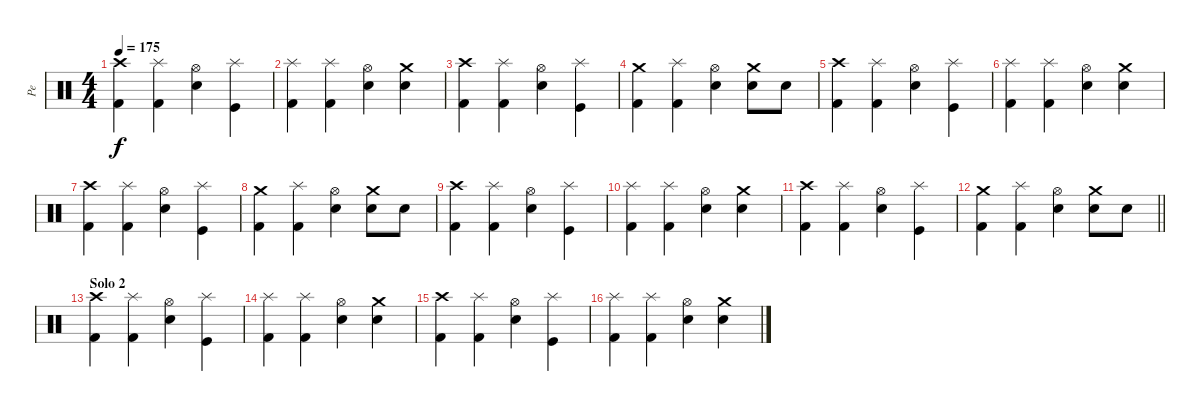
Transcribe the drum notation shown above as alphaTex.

\track ("Pe" "Pe") {instrument percussion}
\staff {score}
\articulation defaults
\ts (4 4)
\tempo 175
\clef neutral
\ks c
("Kick (hit) 2" "Crash high (hit)").4{dy f} ("Kick (hit) 2" "Splash (hit)").4 ("Electric Snare (hit)" "Hi-Hat (open)").4 ("Kick (hit)" "Splash (hit)").4 |
("Kick (hit) 2" "Splash (hit)").4 ("Kick (hit) 2" "Splash (hit)").4 ("Electric Snare (hit)" "Hi-Hat (open)").4 ("Electric Snare (hit)" "Crash medium (hit)").4 |
("Kick (hit) 2" "Crash high (hit)").4 ("Kick (hit) 2" "Splash (hit)").4 ("Electric Snare (hit)" "Hi-Hat (open)").4 ("Kick (hit)" "Splash (hit)").4 |
("Kick (hit) 2" "Crash medium (hit)").4 ("Kick (hit) 2" "Splash (hit)").4 ("Electric Snare (hit)" "Hi-Hat (open)").4 ("Electric Snare (hit)" "Crash medium (hit)").8 "Electric Snare (hit)".8 |
("Kick (hit) 2" "Crash high (hit)").4 ("Kick (hit) 2" "Splash (hit)").4 ("Electric Snare (hit)" "Hi-Hat (open)").4 ("Kick (hit)" "Splash (hit)").4 |
("Kick (hit) 2" "Splash (hit)").4 ("Kick (hit) 2" "Splash (hit)").4 ("Electric Snare (hit)" "Hi-Hat (open)").4 ("Electric Snare (hit)" "Crash medium (hit)").4 |
("Kick (hit) 2" "Crash high (hit)").4 ("Kick (hit) 2" "Splash (hit)").4 ("Electric Snare (hit)" "Hi-Hat (open)").4 ("Kick (hit)" "Splash (hit)").4 |
("Kick (hit) 2" "Crash medium (hit)").4 ("Kick (hit) 2" "Splash (hit)").4 ("Electric Snare (hit)" "Hi-Hat (open)").4 ("Electric Snare (hit)" "Crash medium (hit)").8 "Electric Snare (hit)".8 |
("Kick (hit) 2" "Crash high (hit)").4 ("Kick (hit) 2" "Splash (hit)").4 ("Electric Snare (hit)" "Hi-Hat (open)").4 ("Kick (hit)" "Splash (hit)").4 |
("Kick (hit) 2" "Splash (hit)").4 ("Kick (hit) 2" "Splash (hit)").4 ("Electric Snare (hit)" "Hi-Hat (open)").4 ("Electric Snare (hit)" "Crash medium (hit)").4 |
("Kick (hit) 2" "Crash high (hit)").4 ("Kick (hit) 2" "Splash (hit)").4 ("Electric Snare (hit)" "Hi-Hat (open)").4 ("Kick (hit)" "Splash (hit)").4 |
\barLineRight lightlight
("Kick (hit) 2" "Crash medium (hit)").4 ("Kick (hit) 2" "Splash (hit)").4 ("Electric Snare (hit)" "Hi-Hat (open)").4 ("Electric Snare (hit)" "Crash medium (hit)").8 "Electric Snare (hit)".8 |
\section ("" "Solo 2")
("Kick (hit) 2" "Crash high (hit)").4 ("Kick (hit) 2" "Splash (hit)").4 ("Electric Snare (hit)" "Hi-Hat (open)").4 ("Kick (hit)" "Splash (hit)").4 |
("Kick (hit) 2" "Splash (hit)").4 ("Kick (hit) 2" "Splash (hit)").4 ("Electric Snare (hit)" "Hi-Hat (open)").4 ("Electric Snare (hit)" "Crash medium (hit)").4 |
("Kick (hit) 2" "Crash high (hit)").4 ("Kick (hit) 2" "Splash (hit)").4 ("Electric Snare (hit)" "Hi-Hat (open)").4 ("Kick (hit)" "Splash (hit)").4 |
("Kick (hit) 2" "Splash (hit)").4 ("Kick (hit) 2" "Splash (hit)").4 ("Electric Snare (hit)" "Hi-Hat (open)").4 ("Electric Snare (hit)" "Crash medium (hit)").4
